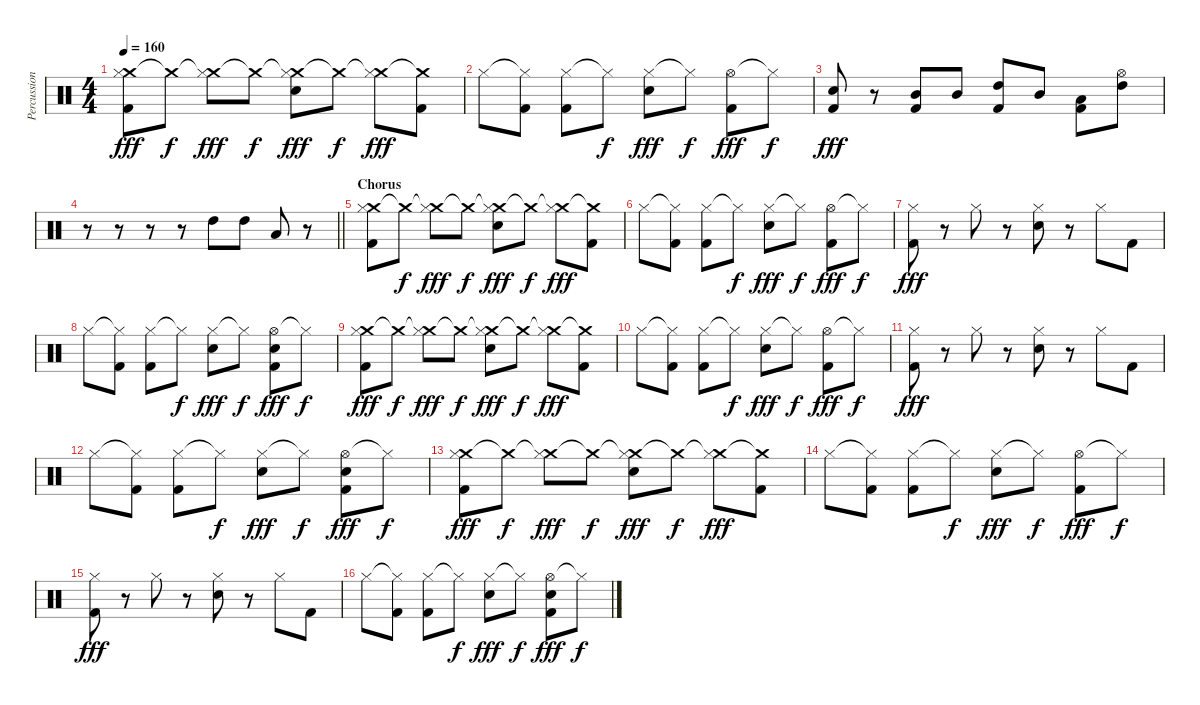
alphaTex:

\track ("Percussions" "Percussion") {instrument percussion}
\staff {score}
\articulation defaults
\ts (4 4)
\tempo 160
\clef neutral
\ks c
("Crash medium (hit)" "Hi-Hat (closed)" "Kick (hit) 2").8{dy fff} "Crash medium (hit)"{t}.8{dy f} ("Crash medium (hit)"{t} "Hi-Hat (closed)").8{dy fff} "Crash medium (hit)"{t}.8{dy f} ("Crash medium (hit)"{t} "Hi-Hat (closed)" "Snare (hit) 2").8{dy fff} "Crash medium (hit)"{t}.8{dy f} ("Crash medium (hit)"{t} "Hi-Hat (closed)").8{dy fff} ("Crash medium (hit)"{t} "Kick (hit) 2").8 |
"Hi-Hat (closed)".8 ("Hi-Hat (closed)"{t} "Kick (hit) 2").8 ("Hi-Hat (closed)" "Kick (hit) 2").8 "Hi-Hat (closed)"{t}.8{dy f} ("Hi-Hat (closed)" "Snare (hit) 2").8{dy fff} "Hi-Hat (closed)"{t}.8{dy f} ("Hi-Hat (open)" "Kick (hit) 2").8{dy fff} "Hi-Hat (closed)"{t}.8{dy f} |
("Snare (hit) 2" "Kick (hit) 2").8{dy fff} r.8 ("Mid Tom (hit)" "Kick (hit) 2").8 "Mid Tom (hit)".8 ("High Tom (hit)" "Kick (hit) 2").8 "Mid Tom (hit)".8 ("Low Tom (hit)" "Kick (hit) 2").8 ("Hi-Hat (open)" "High Tom (hit)").8 |
\barLineRight lightlight
r.8 r.8 r.8 r.8 "High Tom (hit)".8 "High Tom (hit)".8 "Low Tom (hit)".8 r.8 |
\section ("" "Chorus")
("Crash medium (hit)" "Hi-Hat (closed)" "Kick (hit) 2").8 "Crash medium (hit)"{t}.8{dy f} ("Crash medium (hit)"{t} "Hi-Hat (closed)").8{dy fff} "Crash medium (hit)"{t}.8{dy f} ("Crash medium (hit)"{t} "Hi-Hat (closed)" "Snare (hit) 2").8{dy fff} "Crash medium (hit)"{t}.8{dy f} ("Crash medium (hit)"{t} "Hi-Hat (closed)").8{dy fff} ("Crash medium (hit)"{t} "Kick (hit) 2").8 |
"Hi-Hat (closed)".8 ("Hi-Hat (closed)"{t} "Kick (hit) 2").8 ("Hi-Hat (closed)" "Kick (hit) 2").8 "Hi-Hat (closed)"{t}.8{dy f} ("Hi-Hat (closed)" "Snare (hit) 2").8{dy fff} "Hi-Hat (closed)"{t}.8{dy f} ("Hi-Hat (open)" "Kick (hit) 2").8{dy fff} "Hi-Hat (closed)"{t}.8{dy f} |
("Hi-Hat (closed)" "Kick (hit) 2").8{dy fff} r.8 "Hi-Hat (closed)".8 r.8 ("Hi-Hat (closed)" "Snare (hit) 2").8 r.8 "Hi-Hat (closed)".8 "Kick (hit) 2".8 |
"Hi-Hat (closed)".8 ("Hi-Hat (closed)"{t} "Kick (hit) 2").8 ("Hi-Hat (closed)" "Kick (hit) 2").8 "Hi-Hat (closed)"{t}.8{dy f} ("Hi-Hat (closed)" "Snare (hit) 2").8{dy fff} "Hi-Hat (closed)"{t}.8{dy f} ("Hi-Hat (open)" "Snare (hit) 2" "Kick (hit) 2").8{dy fff} "Hi-Hat (closed)"{t}.8{dy f} |
("Crash medium (hit)" "Hi-Hat (closed)" "Kick (hit) 2").8{dy fff} "Crash medium (hit)"{t}.8{dy f} ("Crash medium (hit)"{t} "Hi-Hat (closed)").8{dy fff} "Crash medium (hit)"{t}.8{dy f} ("Crash medium (hit)"{t} "Hi-Hat (closed)" "Snare (hit) 2").8{dy fff} "Crash medium (hit)"{t}.8{dy f} ("Crash medium (hit)"{t} "Hi-Hat (closed)").8{dy fff} ("Crash medium (hit)"{t} "Kick (hit) 2").8 |
"Hi-Hat (closed)".8 ("Hi-Hat (closed)"{t} "Kick (hit) 2").8 ("Hi-Hat (closed)" "Kick (hit) 2").8 "Hi-Hat (closed)"{t}.8{dy f} ("Hi-Hat (closed)" "Snare (hit) 2").8{dy fff} "Hi-Hat (closed)"{t}.8{dy f} ("Hi-Hat (open)" "Kick (hit) 2").8{dy fff} "Hi-Hat (closed)"{t}.8{dy f} |
("Hi-Hat (closed)" "Kick (hit) 2").8{dy fff} r.8 "Hi-Hat (closed)".8 r.8 ("Hi-Hat (closed)" "Snare (hit) 2").8 r.8 "Hi-Hat (closed)".8 "Kick (hit) 2".8 |
"Hi-Hat (closed)".8 ("Hi-Hat (closed)"{t} "Kick (hit) 2").8 ("Hi-Hat (closed)" "Kick (hit) 2").8 "Hi-Hat (closed)"{t}.8{dy f} ("Hi-Hat (closed)" "Snare (hit) 2").8{dy fff} "Hi-Hat (closed)"{t}.8{dy f} ("Hi-Hat (open)" "Snare (hit) 2" "Kick (hit) 2").8{dy fff} "Hi-Hat (closed)"{t}.8{dy f} |
("Crash medium (hit)" "Hi-Hat (closed)" "Kick (hit) 2").8{dy fff} "Crash medium (hit)"{t}.8{dy f} ("Crash medium (hit)"{t} "Hi-Hat (closed)").8{dy fff} "Crash medium (hit)"{t}.8{dy f} ("Crash medium (hit)"{t} "Hi-Hat (closed)" "Snare (hit) 2").8{dy fff} "Crash medium (hit)"{t}.8{dy f} ("Crash medium (hit)"{t} "Hi-Hat (closed)").8{dy fff} ("Crash medium (hit)"{t} "Kick (hit) 2").8 |
"Hi-Hat (closed)".8 ("Hi-Hat (closed)"{t} "Kick (hit) 2").8 ("Hi-Hat (closed)" "Kick (hit) 2").8 "Hi-Hat (closed)"{t}.8{dy f} ("Hi-Hat (closed)" "Snare (hit) 2").8{dy fff} "Hi-Hat (closed)"{t}.8{dy f} ("Hi-Hat (open)" "Kick (hit) 2").8{dy fff} "Hi-Hat (closed)"{t}.8{dy f} |
("Hi-Hat (closed)" "Kick (hit) 2").8{dy fff} r.8 "Hi-Hat (closed)".8 r.8 ("Hi-Hat (closed)" "Snare (hit) 2").8 r.8 "Hi-Hat (closed)".8 "Kick (hit) 2".8 |
"Hi-Hat (closed)".8 ("Hi-Hat (closed)"{t} "Kick (hit) 2").8 ("Hi-Hat (closed)" "Kick (hit) 2").8 "Hi-Hat (closed)"{t}.8{dy f} ("Hi-Hat (closed)" "Snare (hit) 2").8{dy fff} "Hi-Hat (closed)"{t}.8{dy f} ("Hi-Hat (open)" "Snare (hit) 2" "Kick (hit) 2").8{dy fff} "Hi-Hat (closed)"{t}.8{dy f}
